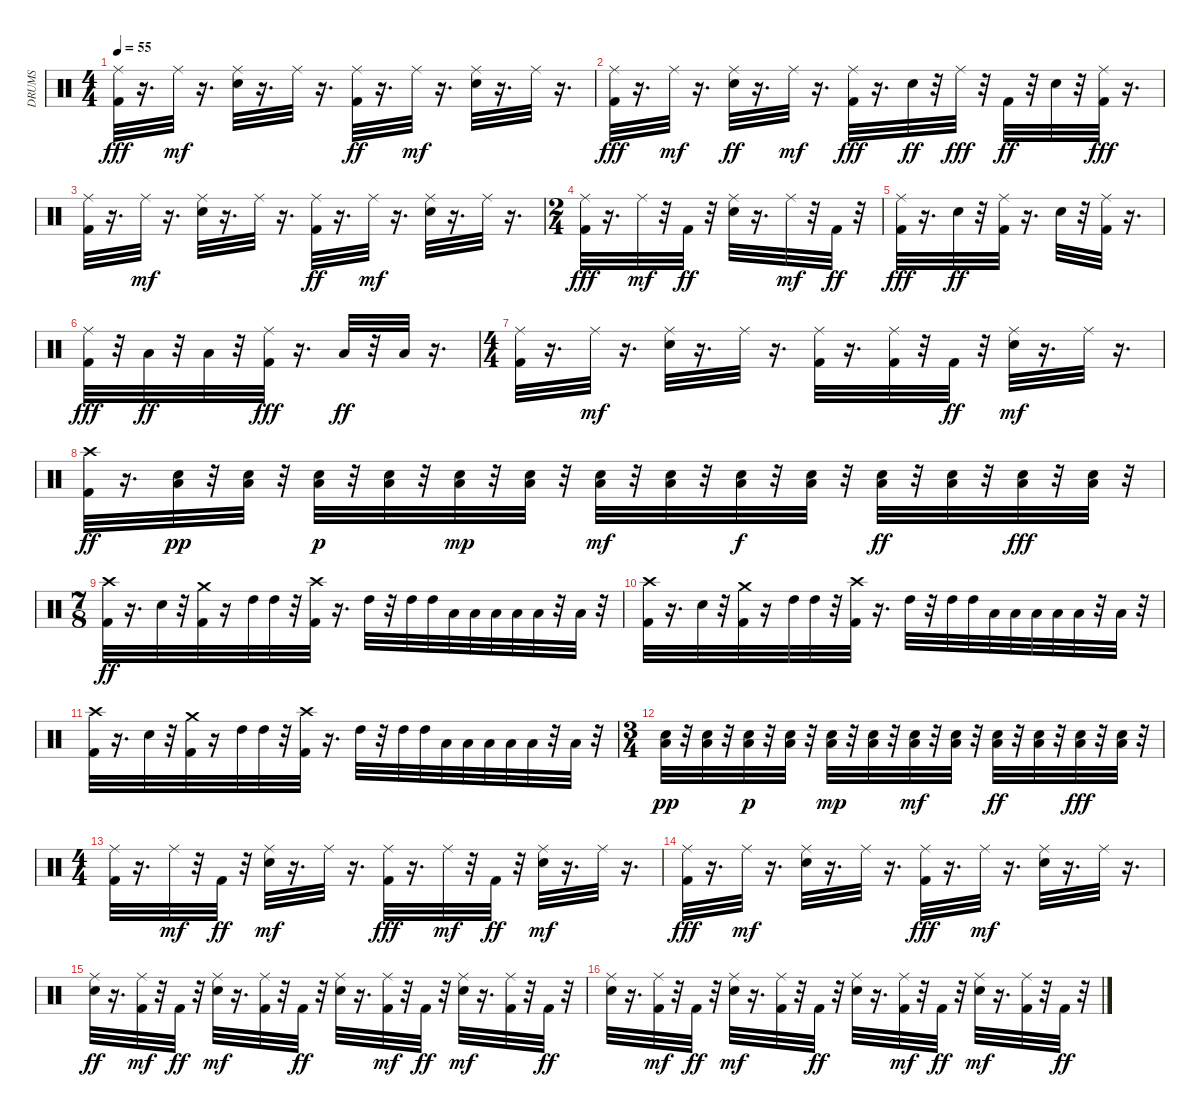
\track ("DRUMS            " "DRUMS     ") {instrument percussion}
\staff {score}
\articulation defaults
\ts (4 4)
\tempo 55
\clef neutral
\ks c
("Ride (middle)" "Kick (hit) 2").32{dy fff} r.16{d} "Ride (middle)".32{dy mf} r.16{d} ("Ride (middle)" "Snare (hit) 2").32 r.16{d} "Ride (middle)".32 r.16{d} ("Ride (middle)" "Kick (hit) 2").32{dy ff} r.16{d} "Ride (middle)".32{dy mf} r.16{d} ("Ride (middle)" "Snare (hit) 2").32 r.16{d} "Ride (middle)".32 r.16{d} |
("Ride (middle)" "Kick (hit) 2").32{dy fff} r.16{d} "Ride (middle)".32{dy mf} r.16{d} ("Ride (middle)" "Snare (hit) 2").32{dy ff} r.16{d} "Ride (middle)".32{dy mf} r.16{d} ("Ride (middle)" "Kick (hit) 2").32{dy fff} r.16{d} "Snare (hit) 2".32{dy ff} r.32 "Ride (middle)".32{dy fff} r.32 "Kick (hit) 2".32{dy ff} r.32 "Snare (hit) 2".32 r.32 ("Ride (middle)" "Kick (hit) 2").32{dy fff} r.16{d} |
("Ride (middle)" "Kick (hit) 2").32 r.16{d} "Ride (middle)".32{dy mf} r.16{d} ("Ride (middle)" "Snare (hit) 2").32 r.16{d} "Ride (middle)".32 r.16{d} ("Ride (middle)" "Kick (hit) 2").32{dy ff} r.16{d} "Ride (middle)".32{dy mf} r.16{d} ("Ride (middle)" "Snare (hit) 2").32 r.16{d} "Ride (middle)".32 r.16{d} |
\ts (2 4)
("Ride (middle)" "Kick (hit) 2").32{dy fff} r.16{d} "Ride (middle)".32{dy mf} r.32 "Kick (hit) 2".32{dy ff} r.32 ("Ride (middle)" "Snare (hit) 2").32 r.16{d} "Ride (middle)".32{dy mf} r.32 "Kick (hit) 2".32{dy ff} r.32 |
("Ride (middle)" "Kick (hit) 2").32{dy fff} r.16{d} "Snare (hit) 2".32{dy ff} r.32 ("Ride (middle)" "Kick (hit) 2").32 r.16{d} "Snare (hit) 2".32 r.32 ("Ride (middle)" "Kick (hit) 2").32 r.16{d} |
("Kick (hit) 2" "Ride (middle)").32{dy fff} r.32 "Low Tom (hit)".32{dy ff} r.32 "Low Floor Tom (hit)".32 r.32 ("Kick (hit) 2" "Ride (middle)").32{dy fff} r.16{d} "Low Floor Tom (hit)".32{dy ff} r.32 "Low Tom (hit)".32 r.16{d} |
\ts (4 4)
("Kick (hit) 2" "Ride (middle)").32 r.16{d} "Ride (middle)".32{dy mf} r.16{d} ("Snare (hit) 2" "Ride (middle)").32 r.16{d} "Ride (middle)".32 r.16{d} ("Kick (hit) 2" "Ride (middle)").32 r.16{d} ("Kick (hit) 2" "Ride (middle)").32 r.32 "Kick (hit) 2".32{dy ff} r.32 ("Snare (hit) 2" "Ride (middle)").32{dy mf} r.16{d} "Ride (middle)".32 r.16{d} |
("Kick (hit) 2" "Crash high (hit)").32{dy ff} r.16{d} ("Snare (hit) 2" "Low Floor Tom (hit)").32{dy pp} r.32 ("Snare (hit) 2" "Low Floor Tom (hit)").32{volume 12} r.32 ("Snare (hit) 2" "Low Floor Tom (hit)").32{dy p volume 12} r.32 ("Snare (hit) 2" "Low Floor Tom (hit)").32{volume 13} r.32 ("Snare (hit) 2" "Low Floor Tom (hit)").32{dy mp volume 13} r.32 ("Snare (hit) 2" "Low Floor Tom (hit)").32{volume 13} r.32 ("Snare (hit) 2" "Low Floor Tom (hit)").32{dy mf volume 13} r.32 ("Snare (hit) 2" "Low Floor Tom (hit)").32{volume 13} r.32 ("Snare (hit) 2" "Low Floor Tom (hit)").32{dy f volume 13} r.32 ("Snare (hit) 2" "Low Floor Tom (hit)").32{volume 13} r.32 ("Snare (hit) 2" "Low Floor Tom (hit)").32{dy ff volume 14} r.32 ("Snare (hit) 2" "Low Floor Tom (hit)").32{volume 14} r.32 ("Snare (hit) 2" "Low Floor Tom (hit)").32{dy fff volume 14} r.32 ("Snare (hit) 2" "Low Floor Tom (hit)").32{volume 14} r.32 |
\ts (7 8)
("Kick (hit) 2" "Crash high (hit)").32{dy ff volume 14} r.16{d} "Snare (hit) 2".32{volume 14} r.32 ("Kick (hit) 2" "Crash medium (hit)").32 r.16 "High Tom (hit)".32 "High Tom (hit)".32 r.32 ("Kick (hit) 2" "Crash high (hit)").32 r.16{d} "High Tom (hit)".32 r.32 "High Tom (hit)".32 "High Tom (hit)".32 "Low Tom (hit)".32 "Low Tom (hit)".32 "Low Tom (hit)".32 "Low Tom (hit)".32 "Low Tom (hit)".32 r.32 "Low Floor Tom (hit)".32 r.32 |
("Kick (hit) 2" "Crash high (hit)").32 r.16{d} "Snare (hit) 2".32 r.32 ("Kick (hit) 2" "Crash medium (hit)").32 r.16 "High Tom (hit)".32 "High Tom (hit)".32 r.32 ("Kick (hit) 2" "Crash high (hit)").32 r.16{d} "High Tom (hit)".32 r.32 "High Tom (hit)".32 "High Tom (hit)".32 "Low Tom (hit)".32 "Low Tom (hit)".32 "Low Tom (hit)".32 "Low Tom (hit)".32 "Low Tom (hit)".32 r.32 "Low Floor Tom (hit)".32 r.32 |
("Kick (hit) 2" "Crash high (hit)").32 r.16{d} "Snare (hit) 2".32 r.32 ("Kick (hit) 2" "Crash medium (hit)").32 r.16 "High Tom (hit)".32 "High Tom (hit)".32 r.32 ("Kick (hit) 2" "Crash high (hit)").32 r.16{d} "High Tom (hit)".32 r.32 "High Tom (hit)".32 "High Tom (hit)".32 "Low Tom (hit)".32 "Low Tom (hit)".32 "Low Tom (hit)".32 "Low Tom (hit)".32 "Low Tom (hit)".32 r.32 "Low Floor Tom (hit)".32 r.32 |
\ts (3 4)
("Snare (hit) 2" "Low Floor Tom (hit)").32{dy pp} r.32 ("Snare (hit) 2" "Low Floor Tom (hit)").32 r.32 ("Snare (hit) 2" "Low Floor Tom (hit)").32{dy p} r.32 ("Snare (hit) 2" "Low Floor Tom (hit)").32 r.32 ("Snare (hit) 2" "Low Floor Tom (hit)").32{dy mp} r.32 ("Snare (hit) 2" "Low Floor Tom (hit)").32 r.32 ("Snare (hit) 2" "Low Floor Tom (hit)").32{dy mf} r.32 ("Snare (hit) 2" "Low Floor Tom (hit)").32 r.32 ("Snare (hit) 2" "Low Floor Tom (hit)").32{dy ff} r.32 ("Snare (hit) 2" "Low Floor Tom (hit)").32 r.32 ("Snare (hit) 2" "Low Floor Tom (hit)").32{dy fff} r.32 ("Snare (hit) 2" "Low Floor Tom (hit)").32 r.32 |
\ts (4 4)
("Kick (hit) 2" "Ride (middle)").32 r.16{d} "Ride (middle)".32{dy mf} r.32 "Kick (hit) 2".32{dy ff} r.32 ("Snare (hit) 2" "Ride (middle)").32{dy mf} r.16{d} "Ride (middle)".32 r.16{d} ("Kick (hit) 2" "Ride (middle)").32{dy fff} r.16{d} "Ride (middle)".32{dy mf} r.32 "Kick (hit) 2".32{dy ff} r.32 ("Snare (hit) 2" "Ride (middle)").32{dy mf} r.16{d} "Ride (middle)".32 r.16{d} |
("Kick (hit) 2" "Ride (middle)").32{dy fff} r.16{d} "Ride (middle)".32{dy mf} r.16{d} ("Snare (hit) 2" "Ride (middle)").32 r.16{d} "Ride (middle)".32 r.16{d} ("Kick (hit) 2" "Ride (middle)").32{dy fff} r.16{d} "Ride (middle)".32{dy mf} r.16{d} ("Snare (hit) 2" "Ride (middle)").32 r.16{d} "Ride (middle)".32 r.16{d} |
("Snare (hit) 2" "Ride (middle)").32{dy ff} r.16{d} ("Kick (hit) 2" "Ride (middle)").32{dy mf} r.32 "Kick (hit) 2".32{dy ff} r.32 ("Snare (hit) 2" "Ride (middle)").32{dy mf} r.16{d} ("Kick (hit) 2" "Ride (middle)").32 r.32 "Kick (hit) 2".32{dy ff} r.32 ("Snare (hit) 2" "Ride (middle)").32 r.16{d} ("Kick (hit) 2" "Ride (middle)").32{dy mf} r.32 "Kick (hit) 2".32{dy ff} r.32 ("Snare (hit) 2" "Ride (middle)").32{dy mf} r.16{d} ("Kick (hit) 2" "Ride (middle)").32 r.32 "Kick (hit) 2".32{dy ff} r.32 |
("Snare (hit) 2" "Ride (middle)").32 r.16{d} ("Kick (hit) 2" "Ride (middle)").32{dy mf} r.32 "Kick (hit) 2".32{dy ff} r.32 ("Snare (hit) 2" "Ride (middle)").32{dy mf} r.16{d} ("Kick (hit) 2" "Ride (middle)").32 r.32 "Kick (hit) 2".32{dy ff} r.32 ("Snare (hit) 2" "Ride (middle)").32 r.16{d} ("Kick (hit) 2" "Ride (middle)").32{dy mf} r.32 "Kick (hit) 2".32{dy ff} r.32 ("Snare (hit) 2" "Ride (middle)").32{dy mf} r.16{d} ("Kick (hit) 2" "Ride (middle)").32 r.32 "Kick (hit) 2".32{dy ff} r.32
